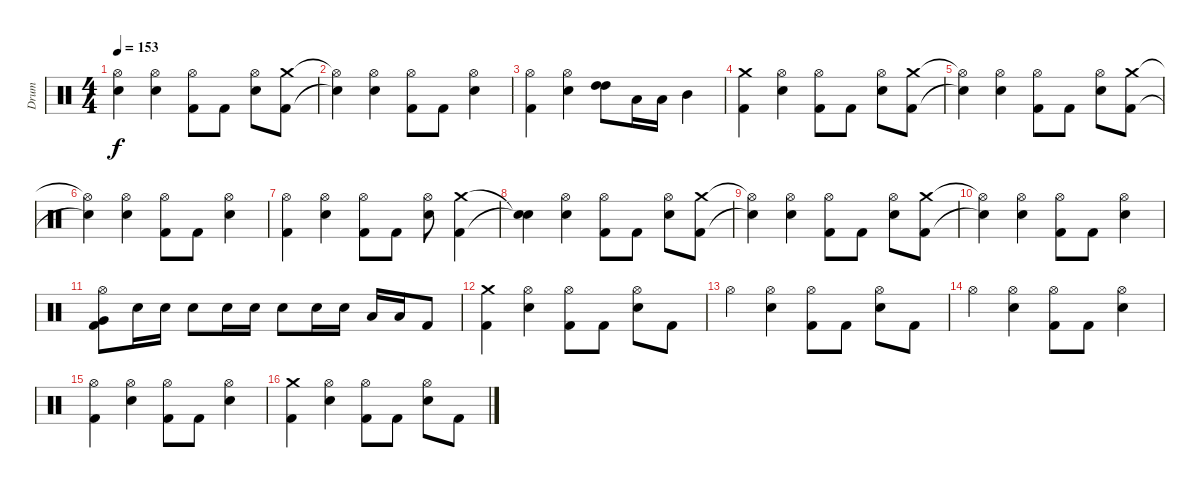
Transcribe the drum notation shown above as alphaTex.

\track ("Drum" "Drum") {instrument percussion}
\staff {score}
\articulation defaults
\ts (4 4)
\tempo 153
\clef neutral
\ks c
("Hi-Hat (open)"{t} "Snare (hit)"{t}).4{dy f} ("Hi-Hat (open)" "Snare (hit) 2").4 ("Hi-Hat (open)" "Kick (hit) 2").8 "Kick (hit) 2".8 ("Hi-Hat (open)" "Snare (hit) 2").8 ("Crash medium (hit)" "Kick (hit) 2").8 |
("Hi-Hat (open)"{t} "Snare (hit)"{t}).4 ("Hi-Hat (open)" "Snare (hit) 2").4 ("Hi-Hat (open)" "Kick (hit) 2").8 "Kick (hit) 2".8 ("Hi-Hat (open)" "Snare (hit) 2").4 |
("Hi-Hat (open)" "Kick (hit) 2").4 ("Hi-Hat (open)" "Snare (hit) 2").4 ("High Tom (hit)" "High Tom (hit)").8{bd 480} "Low Tom (hit)".16 "Low Tom (hit)".16 "Mid Tom (hit)".4 |
("Crash medium (hit)" "Kick (hit) 2").4 ("Hi-Hat (open)" "Snare (hit) 2").4 ("Hi-Hat (open)" "Kick (hit) 2").8 "Kick (hit) 2".8 ("Hi-Hat (open)" "Snare (hit) 2").8 ("Crash medium (hit)" "Kick (hit) 2").8 |
("Hi-Hat (open)"{t} "Snare (hit)"{t}).4 ("Hi-Hat (open)" "Snare (hit) 2").4 ("Hi-Hat (open)" "Kick (hit) 2").8 "Kick (hit) 2".8 ("Hi-Hat (open)" "Snare (hit) 2").8 ("Crash medium (hit)" "Kick (hit) 2").8 |
("Hi-Hat (open)"{t} "Snare (hit)"{t}).4 ("Hi-Hat (open)" "Snare (hit) 2").4 ("Hi-Hat (open)" "Kick (hit) 2").8 "Kick (hit) 2".8 ("Hi-Hat (open)" "Snare (hit) 2").4 |
("Hi-Hat (open)" "Kick (hit) 2").4 ("Hi-Hat (open)" "Snare (hit) 2").4 ("Hi-Hat (open)" "Kick (hit) 2").8 "Kick (hit) 2".8 ("Hi-Hat (open)" "Snare (hit) 2").8 ("Crash medium (hit)" "Kick (hit) 2").4 |
("Snare (hit)"{t} "Snare (hit)"{t}).4 ("Hi-Hat (open)" "Snare (hit) 2").4 ("Hi-Hat (open)" "Kick (hit) 2").8 "Kick (hit) 2".8 ("Hi-Hat (open)" "Snare (hit) 2").8 ("Crash medium (hit)" "Kick (hit) 2").8 |
("Hi-Hat (open)"{t} "Snare (hit)"{t}).4 ("Hi-Hat (open)" "Snare (hit) 2").4 ("Hi-Hat (open)" "Kick (hit) 2").8 "Kick (hit) 2".8 ("Hi-Hat (open)" "Snare (hit) 2").8 ("Crash medium (hit)" "Kick (hit) 2").8 |
("Hi-Hat (open)"{t} "Snare (hit)"{t}).4 ("Hi-Hat (open)" "Snare (hit) 2").4 ("Hi-Hat (open)" "Kick (hit) 2").8 "Kick (hit) 2".8 ("Hi-Hat (open)" "Snare (hit) 2").4 |
("Hi-Hat (open)" "Very Low Tom (hit)" "Kick (hit) 2").8 "Snare (hit) 2".16 "Snare (hit) 2".16 "Snare (hit) 2".8 "Snare (hit) 2".16 "Snare (hit) 2".16 "Snare (hit) 2".8 "Snare (hit) 2".16 "Snare (hit) 2".16 "Low Tom (hit)".16 "Low Tom (hit)".16 "Kick (hit) 2".8 |
("Crash medium (hit)" "Kick (hit) 2").4 ("Hi-Hat (open)" "Snare (hit) 2").4 ("Hi-Hat (open)" "Kick (hit) 2").8 "Kick (hit) 2".8 ("Hi-Hat (open)" "Snare (hit) 2").8 "Kick (hit) 2".8 |
"Hi-Hat (open)".4 ("Hi-Hat (open)" "Snare (hit) 2").4 ("Hi-Hat (open)" "Kick (hit) 2").8 "Kick (hit) 2".8 ("Hi-Hat (open)" "Snare (hit) 2").8 "Kick (hit) 2".8 |
"Hi-Hat (open)".4 ("Hi-Hat (open)" "Snare (hit) 2").4 ("Hi-Hat (open)" "Kick (hit) 2").8 "Kick (hit) 2".8 ("Hi-Hat (open)" "Snare (hit) 2").4 |
("Hi-Hat (open)" "Kick (hit) 2").4 ("Hi-Hat (open)" "Snare (hit) 2").4 ("Hi-Hat (open)" "Kick (hit) 2").8 "Kick (hit) 2".8 ("Hi-Hat (open)" "Snare (hit) 2").4 |
("Crash medium (hit)" "Kick (hit) 2").4 ("Hi-Hat (open)" "Snare (hit) 2").4 ("Hi-Hat (open)" "Kick (hit) 2").8 "Kick (hit) 2".8 ("Hi-Hat (open)" "Snare (hit) 2").8 "Kick (hit) 2".8
